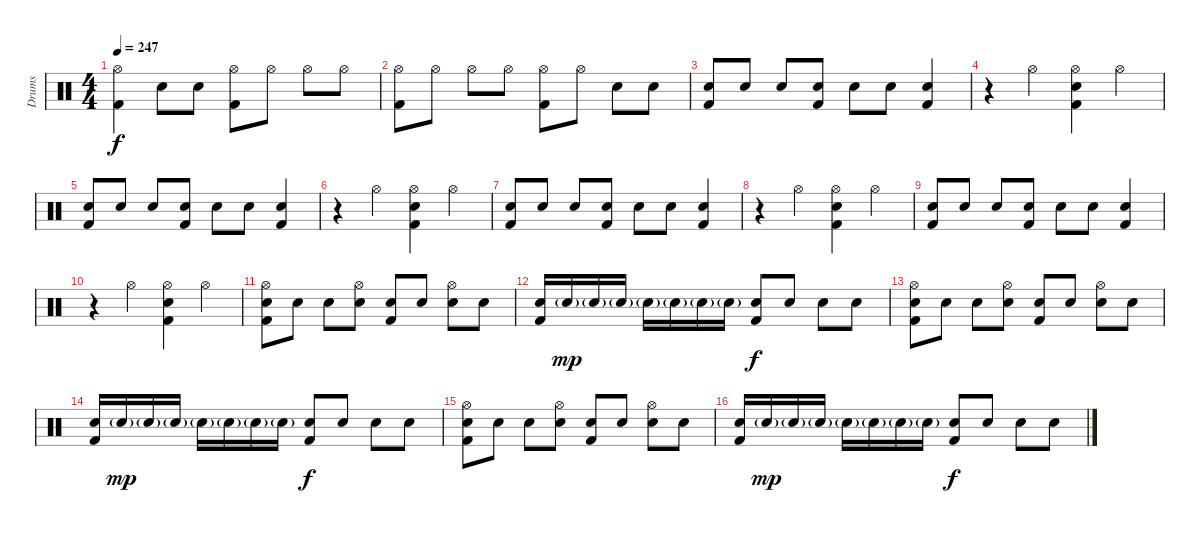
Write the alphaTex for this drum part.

\track ("Drums" "Drums") {instrument percussion}
\staff {score}
\articulation defaults
\ts (4 4)
\tempo 247
\clef neutral
\ks c
("Hi-Hat (open)" "Kick (hit) 2").4{dy f} "Electric Snare (hit)".8 "Electric Snare (hit)".8 ("Hi-Hat (open)" "Kick (hit) 2").8 "Hi-Hat (open)".8 "Hi-Hat (open)".8 "Hi-Hat (open)".8 |
("Hi-Hat (open)" "Kick (hit) 2").8 "Hi-Hat (open)".8 "Hi-Hat (open)".8 "Hi-Hat (open)".8 ("Hi-Hat (open)" "Kick (hit) 2").8 "Hi-Hat (open)".8 "Electric Snare (hit)".8 "Electric Snare (hit)".8 |
("Electric Snare (hit)" "Kick (hit) 2").8 "Electric Snare (hit)".8 "Electric Snare (hit)".8 ("Electric Snare (hit)" "Kick (hit) 2").8 "Electric Snare (hit)".8 "Electric Snare (hit)".8 ("Electric Snare (hit)" "Kick (hit) 2").4 |
r.4 "Hi-Hat (open)".4 ("Hi-Hat (open)" "Electric Snare (hit)" "Kick (hit) 2").4 "Hi-Hat (open)".4 |
("Electric Snare (hit)" "Kick (hit) 2").8 "Electric Snare (hit)".8 "Electric Snare (hit)".8 ("Electric Snare (hit)" "Kick (hit) 2").8 "Electric Snare (hit)".8 "Electric Snare (hit)".8 ("Electric Snare (hit)" "Kick (hit) 2").4 |
r.4 "Hi-Hat (open)".4 ("Hi-Hat (open)" "Electric Snare (hit)" "Kick (hit) 2").4 "Hi-Hat (open)".4 |
("Electric Snare (hit)" "Kick (hit) 2").8 "Electric Snare (hit)".8 "Electric Snare (hit)".8 ("Electric Snare (hit)" "Kick (hit) 2").8 "Electric Snare (hit)".8 "Electric Snare (hit)".8 ("Electric Snare (hit)" "Kick (hit) 2").4 |
r.4 "Hi-Hat (open)".4 ("Hi-Hat (open)" "Electric Snare (hit)" "Kick (hit) 2").4 "Hi-Hat (open)".4 |
("Electric Snare (hit)" "Kick (hit) 2").8 "Electric Snare (hit)".8 "Electric Snare (hit)".8 ("Electric Snare (hit)" "Kick (hit) 2").8 "Electric Snare (hit)".8 "Electric Snare (hit)".8 ("Electric Snare (hit)" "Kick (hit) 2").4 |
r.4 "Hi-Hat (open)".4 ("Hi-Hat (open)" "Electric Snare (hit)" "Kick (hit) 2").4 "Hi-Hat (open)".4 |
("Hi-Hat (open)" "Electric Snare (hit)" "Kick (hit) 2").8 "Electric Snare (hit)".8 "Electric Snare (hit)".8 ("Hi-Hat (open)" "Electric Snare (hit)").8 ("Electric Snare (hit)" "Kick (hit) 2").8 "Electric Snare (hit)".8 ("Hi-Hat (open)" "Electric Snare (hit)").8 "Electric Snare (hit)".8 |
("Electric Snare (hit)" "Kick (hit) 2").16 "Electric Snare (hit)"{g}.16{dy mp} "Electric Snare (hit)"{g}.16 "Electric Snare (hit)"{g}.16 "Electric Snare (hit)"{g}.16 "Electric Snare (hit)"{g}.16 "Electric Snare (hit)"{g}.16 "Electric Snare (hit)"{g}.16 ("Electric Snare (hit)" "Kick (hit) 2").8{dy f} "Electric Snare (hit)".8 "Electric Snare (hit)".8 "Electric Snare (hit)".8 |
("Hi-Hat (open)" "Electric Snare (hit)" "Kick (hit) 2").8 "Electric Snare (hit)".8 "Electric Snare (hit)".8 ("Hi-Hat (open)" "Electric Snare (hit)").8 ("Electric Snare (hit)" "Kick (hit) 2").8 "Electric Snare (hit)".8 ("Hi-Hat (open)" "Electric Snare (hit)").8 "Electric Snare (hit)".8 |
("Electric Snare (hit)" "Kick (hit) 2").16 "Electric Snare (hit)"{g}.16{dy mp} "Electric Snare (hit)"{g}.16 "Electric Snare (hit)"{g}.16 "Electric Snare (hit)"{g}.16 "Electric Snare (hit)"{g}.16 "Electric Snare (hit)"{g}.16 "Electric Snare (hit)"{g}.16 ("Electric Snare (hit)" "Kick (hit) 2").8{dy f} "Electric Snare (hit)".8 "Electric Snare (hit)".8 "Electric Snare (hit)".8 |
("Hi-Hat (open)" "Electric Snare (hit)" "Kick (hit) 2").8 "Electric Snare (hit)".8 "Electric Snare (hit)".8 ("Hi-Hat (open)" "Electric Snare (hit)").8 ("Electric Snare (hit)" "Kick (hit) 2").8 "Electric Snare (hit)".8 ("Hi-Hat (open)" "Electric Snare (hit)").8 "Electric Snare (hit)".8 |
("Electric Snare (hit)" "Kick (hit) 2").16 "Electric Snare (hit)"{g}.16{dy mp} "Electric Snare (hit)"{g}.16 "Electric Snare (hit)"{g}.16 "Electric Snare (hit)"{g}.16 "Electric Snare (hit)"{g}.16 "Electric Snare (hit)"{g}.16 "Electric Snare (hit)"{g}.16 ("Electric Snare (hit)" "Kick (hit) 2").8{dy f} "Electric Snare (hit)".8 "Electric Snare (hit)".8 "Electric Snare (hit)".8
